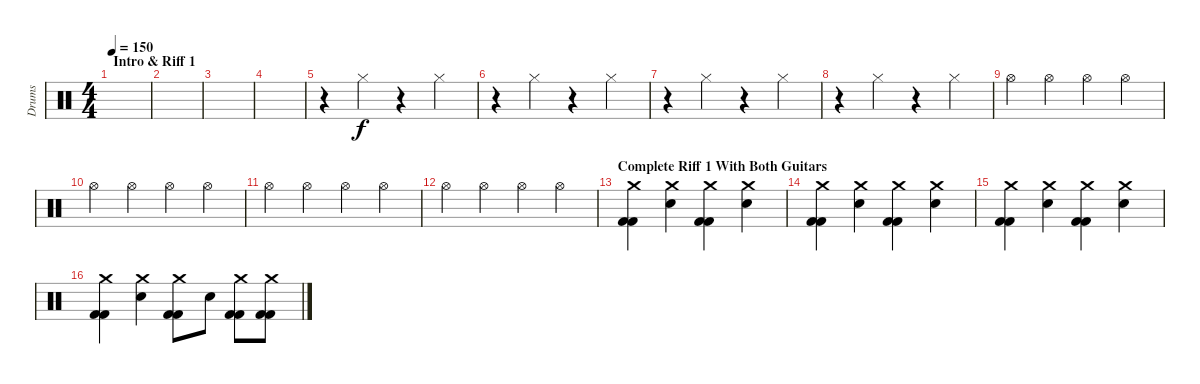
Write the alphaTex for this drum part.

\track ("Drums" "Drums") {instrument percussion}
\staff {score}
\articulation defaults
\ts (4 4)
\section ("" "Intro & Riff 1")
\tempo 150
\clef neutral
\ks c
|
|
|
|
r.4 "Hi-Hat (closed)".4 r.4 "Hi-Hat (closed)".4 |
r.4 "Hi-Hat (closed)".4 r.4 "Hi-Hat (closed)".4 |
r.4 "Hi-Hat (closed)".4 r.4 "Hi-Hat (closed)".4 |
r.4 "Hi-Hat (closed)".4 r.4 "Hi-Hat (closed)".4 |
"Hi-Hat (open)".4 "Hi-Hat (open)".4 "Hi-Hat (open)".4 "Hi-Hat (open)".4 |
"Hi-Hat (open)".4 "Hi-Hat (open)".4 "Hi-Hat (open)".4 "Hi-Hat (open)".4 |
"Hi-Hat (open)".4 "Hi-Hat (open)".4 "Hi-Hat (open)".4 "Hi-Hat (open)".4 |
"Hi-Hat (open)".4 "Hi-Hat (open)".4 "Hi-Hat (open)".4 "Hi-Hat (open)".4 |
\section ("" "Complete Riff 1 With Both Guitars")
("Crash medium (hit)" "Kick (hit) 2" "Kick (hit) 2").4 ("Electric Snare (hit)" "Crash medium (hit)").4 ("Crash medium (hit)" "Kick (hit) 2" "Kick (hit) 2").4 ("Electric Snare (hit)" "Crash medium (hit)").4 |
("Crash medium (hit)" "Kick (hit) 2" "Kick (hit) 2").4 ("Electric Snare (hit)" "Crash medium (hit)").4 ("Crash medium (hit)" "Kick (hit) 2" "Kick (hit) 2").4 ("Electric Snare (hit)" "Crash medium (hit)").4 |
("Crash medium (hit)" "Kick (hit) 2" "Kick (hit) 2").4 ("Electric Snare (hit)" "Crash medium (hit)").4 ("Crash medium (hit)" "Kick (hit) 2" "Kick (hit) 2").4 ("Electric Snare (hit)" "Crash medium (hit)").4 |
("Crash medium (hit)" "Kick (hit) 2" "Kick (hit) 2").4 ("Electric Snare (hit)" "Crash medium (hit)").4 ("Crash medium (hit)" "Kick (hit) 2" "Kick (hit) 2").8 "Electric Snare (hit)".8 ("Kick (hit) 2" "Kick (hit) 2" "Crash medium (hit)").8 ("Crash medium (hit)" "Kick (hit) 2" "Kick (hit) 2").8
